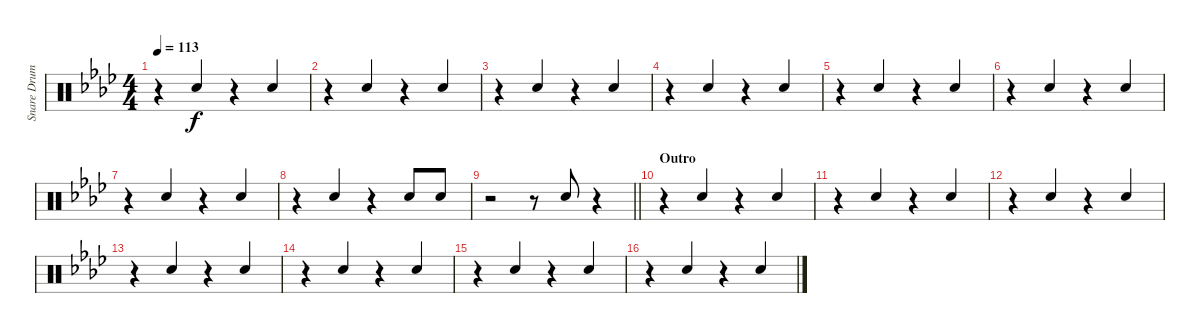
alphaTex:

\track ("Snare Drum - reverb" "Snare Drum") {instrument percussion}
\staff {score}
\articulation defaults
\ts (4 4)
\tempo 113
\clef neutral
\ks fminor
r.4{dy f} "Snare (hit) 2".4{beam Up} r.4 "Snare (hit) 2".4{beam Up} |
r.4 "Snare (hit) 2".4{beam Up} r.4 "Snare (hit) 2".4{beam Up} |
r.4 "Snare (hit) 2".4{beam Up} r.4 "Snare (hit) 2".4{beam Up} |
r.4 "Snare (hit) 2".4{beam Up} r.4 "Snare (hit) 2".4{beam Up} |
r.4 "Snare (hit) 2".4{beam Up} r.4 "Snare (hit) 2".4{beam Up} |
r.4 "Snare (hit) 2".4{beam Up} r.4 "Snare (hit) 2".4{beam Up} |
r.4 "Snare (hit) 2".4{beam Up} r.4 "Snare (hit) 2".4{beam Up} |
r.4 "Snare (hit) 2".4{beam Up} r.4 "Snare (hit) 2".8{beam Up} "Snare (hit) 2".8{beam Up} |
\barLineRight lightlight
r.2 r.8 "Snare (hit) 2".8{beam Up} r.4 |
\section ("" "Outro")
r.4 "Snare (hit) 2".4{beam Up} r.4 "Snare (hit) 2".4{beam Up} |
r.4 "Snare (hit) 2".4{beam Up} r.4 "Snare (hit) 2".4{beam Up} |
r.4 "Snare (hit) 2".4{beam Up} r.4 "Snare (hit) 2".4{beam Up} |
r.4 "Snare (hit) 2".4{beam Up} r.4 "Snare (hit) 2".4{beam Up} |
r.4 "Snare (hit) 2".4{beam Up} r.4 "Snare (hit) 2".4{beam Up} |
r.4 "Snare (hit) 2".4{beam Up} r.4 "Snare (hit) 2".4{beam Up} |
r.4 "Snare (hit) 2".4{beam Up} r.4 "Snare (hit) 2".4{beam Up}
